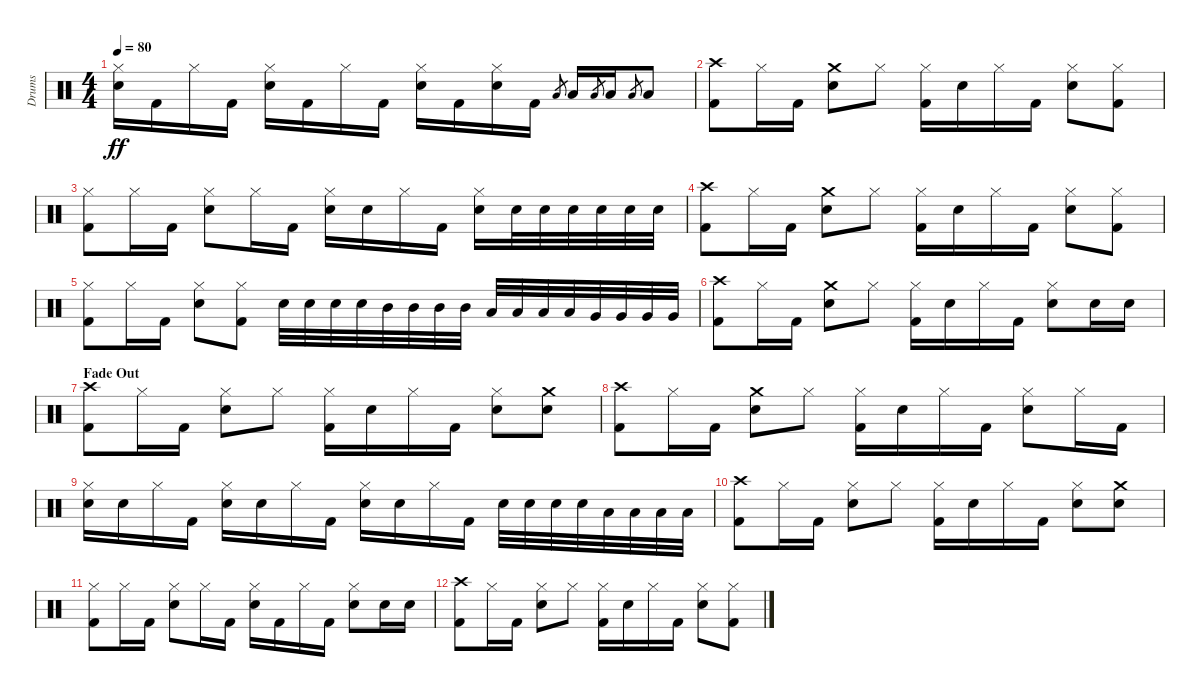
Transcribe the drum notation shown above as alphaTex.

\track ("Drums" "Drums") {instrument percussion}
\staff {score}
\articulation defaults
\ts (4 4)
\tempo 80
\clef neutral
\ks c
("Hi-Hat (closed)" "Snare (hit) 2").16{dy ff} "Kick (hit) 2".16 "Hi-Hat (closed)".16 "Kick (hit) 2".16 ("Hi-Hat (closed)" "Snare (hit) 2").16 "Kick (hit) 2".16 "Hi-Hat (closed)".16 "Kick (hit) 2".16 ("Hi-Hat (closed)" "Snare (hit) 2").16 "Kick (hit) 2".16 ("Hi-Hat (closed)" "Snare (hit) 2").16 "Kick (hit) 2".16 "Low Tom (hit)".8{gr} "Low Tom (hit)".16 "Low Tom (hit)".8{gr} "Low Tom (hit)".16 "Low Tom (hit)".8{gr} "Low Tom (hit)".8 |
("Crash high (hit)" "Kick (hit) 2").8 "Hi-Hat (closed)".16 "Kick (hit) 2".16 ("Crash medium (hit)" "Snare (hit) 2").8 "Hi-Hat (closed)".8 ("Hi-Hat (closed)" "Kick (hit) 2").16 "Snare (hit) 2".16 "Hi-Hat (closed)".16 "Kick (hit) 2".16 ("Hi-Hat (closed)" "Snare (hit) 2").8 ("Hi-Hat (closed)" "Kick (hit) 2").8 |
("Hi-Hat (closed)" "Kick (hit) 2").8 "Hi-Hat (closed)".16 "Kick (hit) 2".16 ("Hi-Hat (closed)" "Snare (hit) 2").8 "Hi-Hat (closed)".16 "Kick (hit) 2".16 ("Hi-Hat (closed)" "Snare (hit) 2").16 "Snare (hit) 2".16 "Hi-Hat (closed)".16 "Kick (hit) 2".16 ("Hi-Hat (closed)" "Snare (hit) 2").16 "Snare (hit) 2".32 "Snare (hit) 2".32 "Snare (hit) 2".32 "Snare (hit) 2".32 "Snare (hit) 2".32 "Snare (hit) 2".32 |
("Crash high (hit)" "Kick (hit) 2").8 "Hi-Hat (closed)".16 "Kick (hit) 2".16 ("Crash medium (hit)" "Snare (hit) 2").8 "Hi-Hat (closed)".8 ("Hi-Hat (closed)" "Kick (hit) 2").16 "Snare (hit) 2".16 "Hi-Hat (closed)".16 "Kick (hit) 2".16 ("Hi-Hat (closed)" "Snare (hit) 2").8 ("Hi-Hat (closed)" "Kick (hit) 2").8 |
("Hi-Hat (closed)" "Kick (hit) 2").8 "Hi-Hat (closed)".16 "Kick (hit) 2".16 ("Hi-Hat (closed)" "Snare (hit) 2").8 ("Hi-Hat (closed)" "Kick (hit) 2").8 "Snare (hit) 2".32 "Snare (hit) 2".32 "Snare (hit) 2".32 "Snare (hit) 2".32 "Mid Tom (hit)".32 "Mid Tom (hit)".32 "Mid Tom (hit)".32 "Mid Tom (hit)".32 "Low Tom (hit)".32 "Low Tom (hit)".32 "Low Tom (hit)".32 "Low Tom (hit)".32 "Very Low Tom (hit)".32 "Very Low Tom (hit)".32 "Very Low Tom (hit)".32 "Very Low Tom (hit)".32 |
("Crash high (hit)" "Kick (hit) 2").8 "Hi-Hat (closed)".16 "Kick (hit) 2".16 ("Crash medium (hit)" "Snare (hit) 2").8 "Hi-Hat (closed)".8 ("Hi-Hat (closed)" "Kick (hit) 2").16 "Snare (hit) 2".16 "Hi-Hat (closed)".16 "Kick (hit) 2".16 ("Hi-Hat (closed)" "Snare (hit) 2").8 "Snare (hit) 2".16 "Snare (hit) 2".16 |
\section ("" "Fade Out")
("Crash high (hit)" "Kick (hit) 2").8{volume 8} "Hi-Hat (closed)".16 "Kick (hit) 2".16 ("Hi-Hat (closed)" "Snare (hit) 2").8 "Hi-Hat (closed)".8 ("Hi-Hat (closed)" "Kick (hit) 2").16 "Snare (hit) 2".16 "Hi-Hat (closed)".16 "Kick (hit) 2".16 ("Hi-Hat (closed)" "Snare (hit) 2").8 ("Crash medium (hit)" "Snare (hit) 2").8 |
("Crash high (hit)" "Kick (hit) 2").8 "Hi-Hat (closed)".16 "Kick (hit) 2".16 ("Crash medium (hit)" "Snare (hit) 2").8 "Hi-Hat (closed)".8 ("Hi-Hat (closed)" "Kick (hit) 2").16 "Snare (hit) 2".16 "Hi-Hat (closed)".16 "Kick (hit) 2".16 ("Hi-Hat (closed)" "Snare (hit) 2").8 "Hi-Hat (closed)".16 "Kick (hit) 2".16 |
("Hi-Hat (closed)" "Snare (hit) 2").16{volume 4} "Snare (hit) 2".16 "Hi-Hat (closed)".16 "Kick (hit) 2".16 ("Hi-Hat (closed)" "Snare (hit) 2").16 "Snare (hit) 2".16 "Hi-Hat (closed)".16 "Kick (hit) 2".16 ("Hi-Hat (closed)" "Snare (hit) 2").16 "Snare (hit) 2".16 "Hi-Hat (closed)".16 "Kick (hit) 2".16 "Snare (hit) 2".32 "Snare (hit) 2".32 "Snare (hit) 2".32 "Snare (hit) 2".32 "Low Tom (hit)".32 "Low Tom (hit)".32 "Low Tom (hit)".32 "Low Tom (hit)".32 |
("Crash high (hit)" "Kick (hit) 2").8 "Hi-Hat (closed)".16 "Kick (hit) 2".16 ("Hi-Hat (closed)" "Snare (hit) 2").8 "Hi-Hat (closed)".8 ("Hi-Hat (closed)" "Kick (hit) 2").16 "Snare (hit) 2".16 "Hi-Hat (closed)".16 "Kick (hit) 2".16 ("Hi-Hat (closed)" "Snare (hit) 2").8 ("Crash medium (hit)" "Snare (hit) 2").8 |
("Hi-Hat (closed)" "Kick (hit) 2").8{volume 0} "Hi-Hat (closed)".16 "Kick (hit) 2".16 ("Hi-Hat (closed)" "Snare (hit) 2").8 "Hi-Hat (closed)".16 "Kick (hit) 2".16 ("Hi-Hat (closed)" "Snare (hit) 2").16 "Kick (hit) 2".16 "Hi-Hat (closed)".16 "Kick (hit) 2".16 ("Hi-Hat (closed)" "Snare (hit) 2").8 "Snare (hit) 2".16 "Snare (hit) 2".16 |
("Crash high (hit)" "Kick (hit) 2").8 "Hi-Hat (closed)".16 "Kick (hit) 2".16 ("Hi-Hat (closed)" "Snare (hit) 2").8 "Hi-Hat (closed)".8 ("Hi-Hat (closed)" "Kick (hit) 2").16 "Snare (hit) 2".16 "Hi-Hat (closed)".16 "Kick (hit) 2".16 ("Hi-Hat (closed)" "Snare (hit) 2").8 ("Hi-Hat (closed)" "Kick (hit) 2").8
